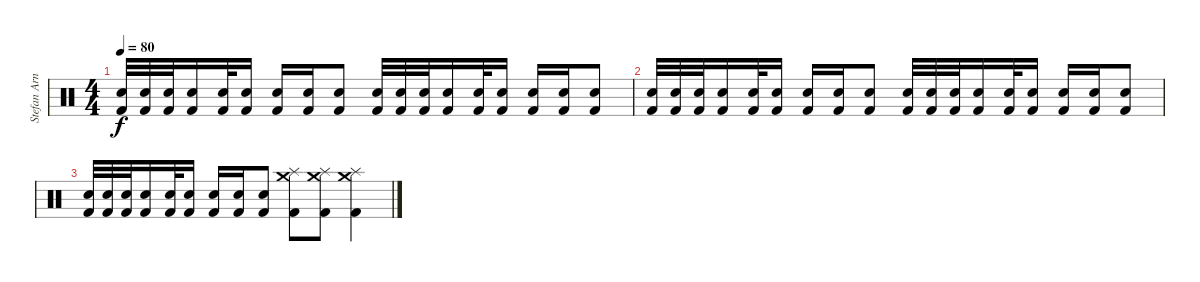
\track ("Stefan Arnold" "Stefan Arn") {instrument percussion}
\staff {score}
\articulation defaults
\ts (4 4)
\tempo 80
\clef neutral
\ks c
("Electric Snare (hit)" "Kick (hit) 2").32{dy f} ("Electric Snare (hit)" "Kick (hit) 2").32 ("Electric Snare (hit)" "Kick (hit) 2").32 ("Electric Snare (hit)" "Kick (hit) 2").16 ("Electric Snare (hit)" "Kick (hit) 2").32 ("Electric Snare (hit)" "Kick (hit) 2").16 ("Electric Snare (hit)" "Kick (hit) 2").16 ("Electric Snare (hit)" "Kick (hit) 2").16 ("Electric Snare (hit)" "Kick (hit) 2").8 ("Electric Snare (hit)" "Kick (hit) 2").32 ("Electric Snare (hit)" "Kick (hit) 2").32 ("Electric Snare (hit)" "Kick (hit) 2").32 ("Electric Snare (hit)" "Kick (hit) 2").16 ("Electric Snare (hit)" "Kick (hit) 2").32 ("Electric Snare (hit)" "Kick (hit) 2").16 ("Electric Snare (hit)" "Kick (hit) 2").16 ("Electric Snare (hit)" "Kick (hit) 2").16 ("Electric Snare (hit)" "Kick (hit) 2").8 |
("Electric Snare (hit)" "Kick (hit) 2").32 ("Electric Snare (hit)" "Kick (hit) 2").32 ("Electric Snare (hit)" "Kick (hit) 2").32 ("Electric Snare (hit)" "Kick (hit) 2").16 ("Electric Snare (hit)" "Kick (hit) 2").32 ("Electric Snare (hit)" "Kick (hit) 2").16 ("Electric Snare (hit)" "Kick (hit) 2").16 ("Electric Snare (hit)" "Kick (hit) 2").16 ("Electric Snare (hit)" "Kick (hit) 2").8 ("Electric Snare (hit)" "Kick (hit) 2").32 ("Electric Snare (hit)" "Kick (hit) 2").32 ("Electric Snare (hit)" "Kick (hit) 2").32 ("Electric Snare (hit)" "Kick (hit) 2").16 ("Electric Snare (hit)" "Kick (hit) 2").32 ("Electric Snare (hit)" "Kick (hit) 2").16 ("Electric Snare (hit)" "Kick (hit) 2").16 ("Electric Snare (hit)" "Kick (hit) 2").16 ("Electric Snare (hit)" "Kick (hit) 2").8 |
("Electric Snare (hit)" "Kick (hit) 2").32 ("Electric Snare (hit)" "Kick (hit) 2").32 ("Electric Snare (hit)" "Kick (hit) 2").32 ("Electric Snare (hit)" "Kick (hit) 2").16 ("Electric Snare (hit)" "Kick (hit) 2").32 ("Electric Snare (hit)" "Kick (hit) 2").16 ("Electric Snare (hit)" "Kick (hit) 2").16 ("Electric Snare (hit)" "Kick (hit) 2").16 ("Electric Snare (hit)" "Kick (hit) 2").8 ("Crash medium (hit)" "Splash (hit)" "Kick (hit) 2").8 ("Crash medium (hit)" "Splash (hit)" "Kick (hit) 2").8 ("Crash medium (hit)" "Splash (hit)" "Kick (hit) 2").4
